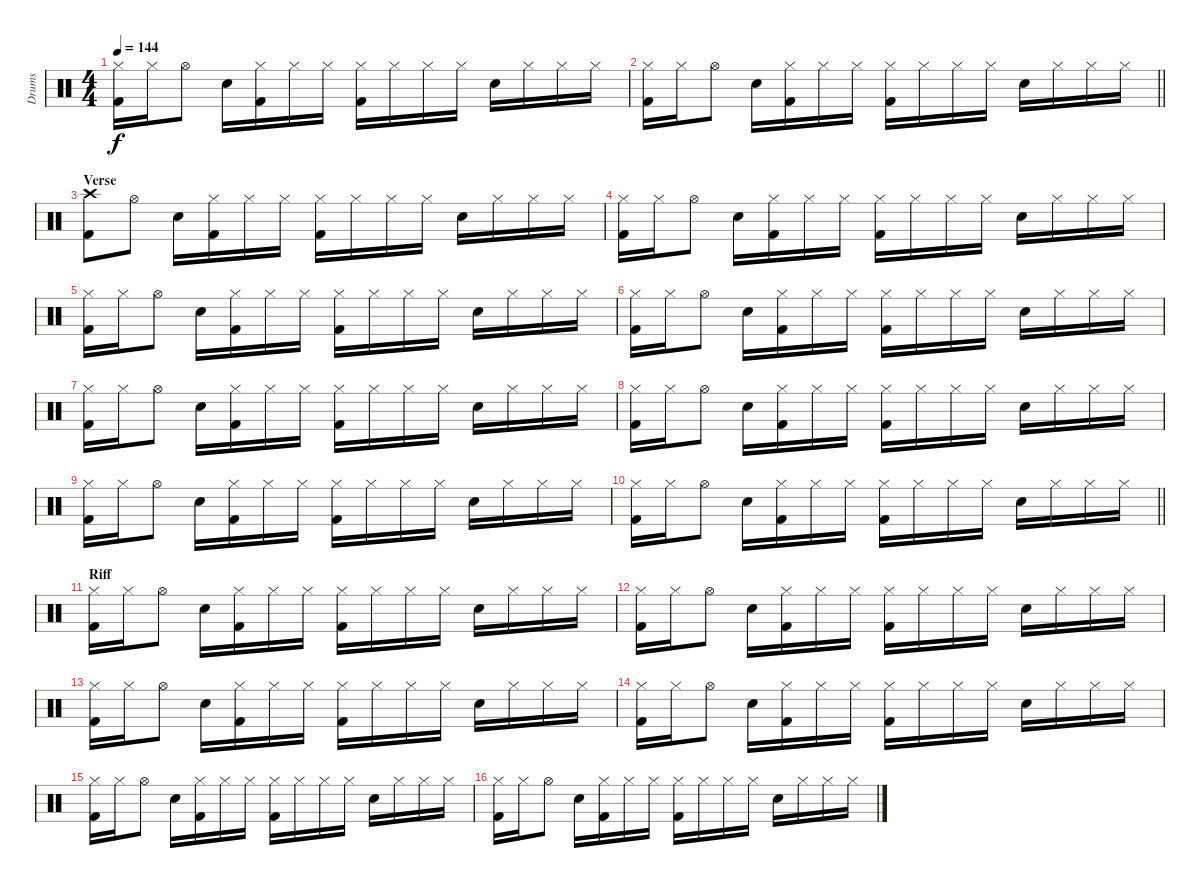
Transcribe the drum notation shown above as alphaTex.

\track ("Drums" "Drums") {instrument percussion}
\staff {score}
\articulation defaults
\ts (4 4)
\tempo 144
\clef neutral
\ks c
("Hi-Hat (closed)" "Kick (hit) 2").16{dy f} "Hi-Hat (closed)".16 "Hi-Hat (open)".8 "Electric Snare (hit)".16 ("Hi-Hat (closed)" "Kick (hit) 2").16 "Hi-Hat (closed)".16 "Hi-Hat (closed)".16 ("Hi-Hat (closed)" "Kick (hit) 2").16 "Hi-Hat (closed)".16 "Hi-Hat (closed)".16 "Hi-Hat (closed)".16 "Electric Snare (hit)".16 "Hi-Hat (closed)".16 "Hi-Hat (closed)".16 "Hi-Hat (closed)".16 |
\barLineRight lightlight
("Hi-Hat (closed)" "Kick (hit) 2").16 "Hi-Hat (closed)".16 "Hi-Hat (open)".8 "Electric Snare (hit)".16 ("Hi-Hat (closed)" "Kick (hit) 2").16 "Hi-Hat (closed)".16 "Hi-Hat (closed)".16 ("Hi-Hat (closed)" "Kick (hit) 2").16 "Hi-Hat (closed)".16 "Hi-Hat (closed)".16 "Hi-Hat (closed)".16 "Electric Snare (hit)".16 "Hi-Hat (closed)".16 "Hi-Hat (closed)".16 "Hi-Hat (closed)".16 |
\section ("" "Verse")
("Crash high (hit)" "Kick (hit) 2").8 "Hi-Hat (open)".8 "Electric Snare (hit)".16 ("Hi-Hat (closed)" "Kick (hit) 2").16 "Hi-Hat (closed)".16 "Hi-Hat (closed)".16 ("Hi-Hat (closed)" "Kick (hit) 2").16 "Hi-Hat (closed)".16 "Hi-Hat (closed)".16 "Hi-Hat (closed)".16 "Electric Snare (hit)".16 "Hi-Hat (closed)".16 "Hi-Hat (closed)".16 "Hi-Hat (closed)".16 |
("Hi-Hat (closed)" "Kick (hit) 2").16 "Hi-Hat (closed)".16 "Hi-Hat (open)".8 "Electric Snare (hit)".16 ("Hi-Hat (closed)" "Kick (hit) 2").16 "Hi-Hat (closed)".16 "Hi-Hat (closed)".16 ("Hi-Hat (closed)" "Kick (hit) 2").16 "Hi-Hat (closed)".16 "Hi-Hat (closed)".16 "Hi-Hat (closed)".16 "Electric Snare (hit)".16 "Hi-Hat (closed)".16 "Hi-Hat (closed)".16 "Hi-Hat (closed)".16 |
("Hi-Hat (closed)" "Kick (hit) 2").16 "Hi-Hat (closed)".16 "Hi-Hat (open)".8 "Electric Snare (hit)".16 ("Hi-Hat (closed)" "Kick (hit) 2").16 "Hi-Hat (closed)".16 "Hi-Hat (closed)".16 ("Hi-Hat (closed)" "Kick (hit) 2").16 "Hi-Hat (closed)".16 "Hi-Hat (closed)".16 "Hi-Hat (closed)".16 "Electric Snare (hit)".16 "Hi-Hat (closed)".16 "Hi-Hat (closed)".16 "Hi-Hat (closed)".16 |
("Hi-Hat (closed)" "Kick (hit) 2").16 "Hi-Hat (closed)".16 "Hi-Hat (open)".8 "Electric Snare (hit)".16 ("Hi-Hat (closed)" "Kick (hit) 2").16 "Hi-Hat (closed)".16 "Hi-Hat (closed)".16 ("Hi-Hat (closed)" "Kick (hit) 2").16 "Hi-Hat (closed)".16 "Hi-Hat (closed)".16 "Hi-Hat (closed)".16 "Electric Snare (hit)".16 "Hi-Hat (closed)".16 "Hi-Hat (closed)".16 "Hi-Hat (closed)".16 |
("Hi-Hat (closed)" "Kick (hit) 2").16 "Hi-Hat (closed)".16 "Hi-Hat (open)".8 "Electric Snare (hit)".16 ("Hi-Hat (closed)" "Kick (hit) 2").16 "Hi-Hat (closed)".16 "Hi-Hat (closed)".16 ("Hi-Hat (closed)" "Kick (hit) 2").16 "Hi-Hat (closed)".16 "Hi-Hat (closed)".16 "Hi-Hat (closed)".16 "Electric Snare (hit)".16 "Hi-Hat (closed)".16 "Hi-Hat (closed)".16 "Hi-Hat (closed)".16 |
("Hi-Hat (closed)" "Kick (hit) 2").16 "Hi-Hat (closed)".16 "Hi-Hat (open)".8 "Electric Snare (hit)".16 ("Hi-Hat (closed)" "Kick (hit) 2").16 "Hi-Hat (closed)".16 "Hi-Hat (closed)".16 ("Hi-Hat (closed)" "Kick (hit) 2").16 "Hi-Hat (closed)".16 "Hi-Hat (closed)".16 "Hi-Hat (closed)".16 "Electric Snare (hit)".16 "Hi-Hat (closed)".16 "Hi-Hat (closed)".16 "Hi-Hat (closed)".16 |
("Hi-Hat (closed)" "Kick (hit) 2").16 "Hi-Hat (closed)".16 "Hi-Hat (open)".8 "Electric Snare (hit)".16 ("Hi-Hat (closed)" "Kick (hit) 2").16 "Hi-Hat (closed)".16 "Hi-Hat (closed)".16 ("Hi-Hat (closed)" "Kick (hit) 2").16 "Hi-Hat (closed)".16 "Hi-Hat (closed)".16 "Hi-Hat (closed)".16 "Electric Snare (hit)".16 "Hi-Hat (closed)".16 "Hi-Hat (closed)".16 "Hi-Hat (closed)".16 |
\barLineRight lightlight
("Hi-Hat (closed)" "Kick (hit) 2").16 "Hi-Hat (closed)".16 "Hi-Hat (open)".8 "Electric Snare (hit)".16 ("Hi-Hat (closed)" "Kick (hit) 2").16 "Hi-Hat (closed)".16 "Hi-Hat (closed)".16 ("Hi-Hat (closed)" "Kick (hit) 2").16 "Hi-Hat (closed)".16 "Hi-Hat (closed)".16 "Hi-Hat (closed)".16 "Electric Snare (hit)".16 "Hi-Hat (closed)".16 "Hi-Hat (closed)".16 "Hi-Hat (closed)".16 |
\section ("" "Riff")
("Hi-Hat (closed)" "Kick (hit) 2").16 "Hi-Hat (closed)".16 "Hi-Hat (open)".8 "Electric Snare (hit)".16 ("Hi-Hat (closed)" "Kick (hit) 2").16 "Hi-Hat (closed)".16 "Hi-Hat (closed)".16 ("Hi-Hat (closed)" "Kick (hit) 2").16 "Hi-Hat (closed)".16 "Hi-Hat (closed)".16 "Hi-Hat (closed)".16 "Electric Snare (hit)".16 "Hi-Hat (closed)".16 "Hi-Hat (closed)".16 "Hi-Hat (closed)".16 |
("Hi-Hat (closed)" "Kick (hit) 2").16 "Hi-Hat (closed)".16 "Hi-Hat (open)".8 "Electric Snare (hit)".16 ("Hi-Hat (closed)" "Kick (hit) 2").16 "Hi-Hat (closed)".16 "Hi-Hat (closed)".16 ("Hi-Hat (closed)" "Kick (hit) 2").16 "Hi-Hat (closed)".16 "Hi-Hat (closed)".16 "Hi-Hat (closed)".16 "Electric Snare (hit)".16 "Hi-Hat (closed)".16 "Hi-Hat (closed)".16 "Hi-Hat (closed)".16 |
("Hi-Hat (closed)" "Kick (hit) 2").16 "Hi-Hat (closed)".16 "Hi-Hat (open)".8 "Electric Snare (hit)".16 ("Hi-Hat (closed)" "Kick (hit) 2").16 "Hi-Hat (closed)".16 "Hi-Hat (closed)".16 ("Hi-Hat (closed)" "Kick (hit) 2").16 "Hi-Hat (closed)".16 "Hi-Hat (closed)".16 "Hi-Hat (closed)".16 "Electric Snare (hit)".16 "Hi-Hat (closed)".16 "Hi-Hat (closed)".16 "Hi-Hat (closed)".16 |
("Hi-Hat (closed)" "Kick (hit) 2").16 "Hi-Hat (closed)".16 "Hi-Hat (open)".8 "Electric Snare (hit)".16 ("Hi-Hat (closed)" "Kick (hit) 2").16 "Hi-Hat (closed)".16 "Hi-Hat (closed)".16 ("Hi-Hat (closed)" "Kick (hit) 2").16 "Hi-Hat (closed)".16 "Hi-Hat (closed)".16 "Hi-Hat (closed)".16 "Electric Snare (hit)".16 "Hi-Hat (closed)".16 "Hi-Hat (closed)".16 "Hi-Hat (closed)".16 |
("Hi-Hat (closed)" "Kick (hit) 2").16 "Hi-Hat (closed)".16 "Hi-Hat (open)".8 "Electric Snare (hit)".16 ("Hi-Hat (closed)" "Kick (hit) 2").16 "Hi-Hat (closed)".16 "Hi-Hat (closed)".16 ("Hi-Hat (closed)" "Kick (hit) 2").16 "Hi-Hat (closed)".16 "Hi-Hat (closed)".16 "Hi-Hat (closed)".16 "Electric Snare (hit)".16 "Hi-Hat (closed)".16 "Hi-Hat (closed)".16 "Hi-Hat (closed)".16 |
("Hi-Hat (closed)" "Kick (hit) 2").16 "Hi-Hat (closed)".16 "Hi-Hat (open)".8 "Electric Snare (hit)".16 ("Hi-Hat (closed)" "Kick (hit) 2").16 "Hi-Hat (closed)".16 "Hi-Hat (closed)".16 ("Hi-Hat (closed)" "Kick (hit) 2").16 "Hi-Hat (closed)".16 "Hi-Hat (closed)".16 "Hi-Hat (closed)".16 "Electric Snare (hit)".16 "Hi-Hat (closed)".16 "Hi-Hat (closed)".16 "Hi-Hat (closed)".16
